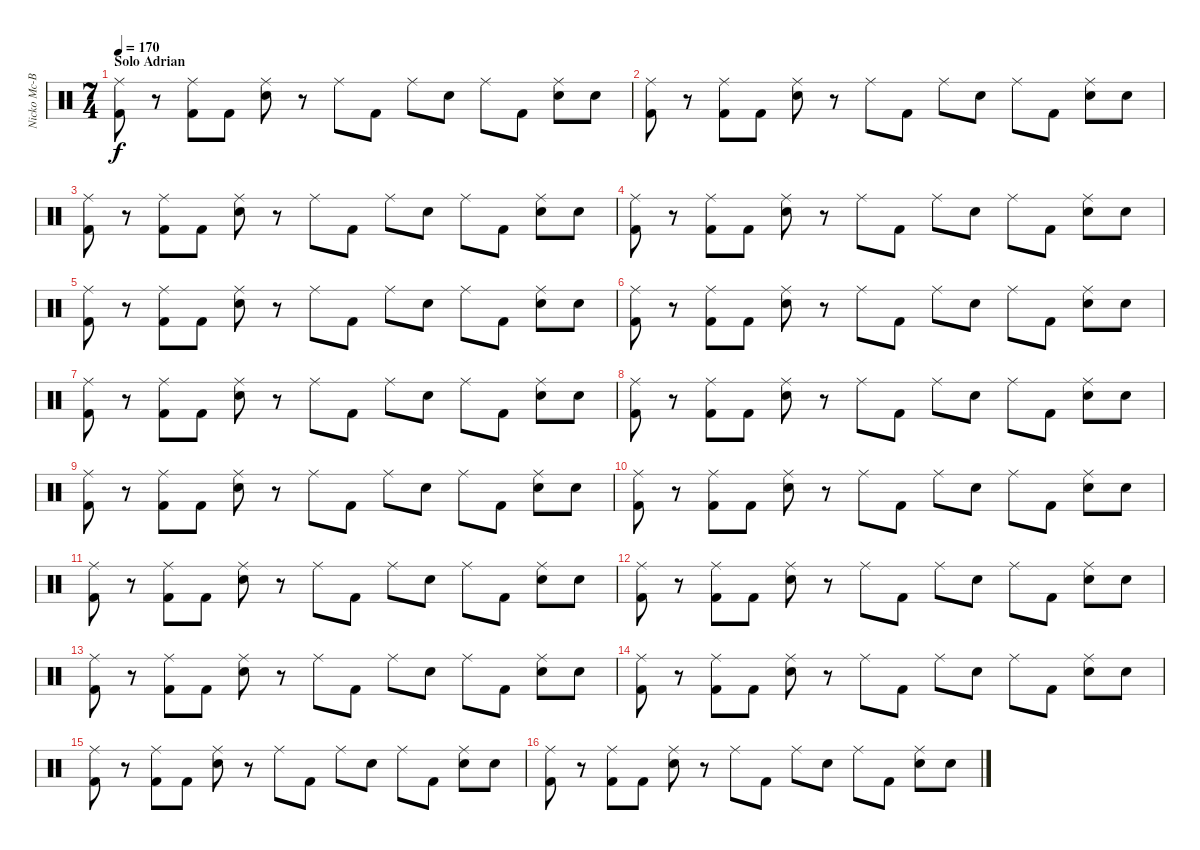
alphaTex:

\track ("Nicko Mc-Brain" "Nicko Mc-B") {instrument percussion}
\staff {score}
\articulation defaults
\ts (7 4)
\section ("" "Solo Adrian")
\tempo 170
\clef neutral
\ks c
("Ride (middle)" "Kick (hit) 2").8{dy f} r.8 ("Ride (middle)" "Kick (hit) 2").8 "Kick (hit) 2".8 ("Ride (middle)" "Snare (hit) 2").8 r.8 "Ride (middle)".8 "Kick (hit) 2".8 "Ride (middle)".8 "Snare (hit) 2".8 "Ride (middle)".8 "Kick (hit) 2".8 ("Ride (middle)" "Snare (hit) 2").8 "Snare (hit) 2".8 |
("Ride (middle)" "Kick (hit) 2").8 r.8 ("Ride (middle)" "Kick (hit) 2").8 "Kick (hit) 2".8 ("Ride (middle)" "Snare (hit) 2").8 r.8 "Ride (middle)".8 "Kick (hit) 2".8 "Ride (middle)".8 "Snare (hit) 2".8 "Ride (middle)".8 "Kick (hit) 2".8 ("Ride (middle)" "Snare (hit) 2").8 "Snare (hit) 2".8 |
("Ride (middle)" "Kick (hit) 2").8 r.8 ("Ride (middle)" "Kick (hit) 2").8 "Kick (hit) 2".8 ("Ride (middle)" "Snare (hit) 2").8 r.8 "Ride (middle)".8 "Kick (hit) 2".8 "Ride (middle)".8 "Snare (hit) 2".8 "Ride (middle)".8 "Kick (hit) 2".8 ("Ride (middle)" "Snare (hit) 2").8 "Snare (hit) 2".8 |
("Ride (middle)" "Kick (hit) 2").8 r.8 ("Ride (middle)" "Kick (hit) 2").8 "Kick (hit) 2".8 ("Ride (middle)" "Snare (hit) 2").8 r.8 "Ride (middle)".8 "Kick (hit) 2".8 "Ride (middle)".8 "Snare (hit) 2".8 "Ride (middle)".8 "Kick (hit) 2".8 ("Ride (middle)" "Snare (hit) 2").8 "Snare (hit) 2".8 |
("Ride (middle)" "Kick (hit) 2").8 r.8 ("Ride (middle)" "Kick (hit) 2").8 "Kick (hit) 2".8 ("Ride (middle)" "Snare (hit) 2").8 r.8 "Ride (middle)".8 "Kick (hit) 2".8 "Ride (middle)".8 "Snare (hit) 2".8 "Ride (middle)".8 "Kick (hit) 2".8 ("Ride (middle)" "Snare (hit) 2").8 "Snare (hit) 2".8 |
("Ride (middle)" "Kick (hit) 2").8 r.8 ("Ride (middle)" "Kick (hit) 2").8 "Kick (hit) 2".8 ("Ride (middle)" "Snare (hit) 2").8 r.8 "Ride (middle)".8 "Kick (hit) 2".8 "Ride (middle)".8 "Snare (hit) 2".8 "Ride (middle)".8 "Kick (hit) 2".8 ("Ride (middle)" "Snare (hit) 2").8 "Snare (hit) 2".8 |
("Ride (middle)" "Kick (hit) 2").8 r.8 ("Ride (middle)" "Kick (hit) 2").8 "Kick (hit) 2".8 ("Ride (middle)" "Snare (hit) 2").8 r.8 "Ride (middle)".8 "Kick (hit) 2".8 "Ride (middle)".8 "Snare (hit) 2".8 "Ride (middle)".8 "Kick (hit) 2".8 ("Ride (middle)" "Snare (hit) 2").8 "Snare (hit) 2".8 |
("Ride (middle)" "Kick (hit) 2").8 r.8 ("Ride (middle)" "Kick (hit) 2").8 "Kick (hit) 2".8 ("Ride (middle)" "Snare (hit) 2").8 r.8 "Ride (middle)".8 "Kick (hit) 2".8 "Ride (middle)".8 "Snare (hit) 2".8 "Ride (middle)".8 "Kick (hit) 2".8 ("Ride (middle)" "Snare (hit) 2").8 "Snare (hit) 2".8 |
("Ride (middle)" "Kick (hit) 2").8 r.8 ("Ride (middle)" "Kick (hit) 2").8 "Kick (hit) 2".8 ("Ride (middle)" "Snare (hit) 2").8 r.8 "Ride (middle)".8 "Kick (hit) 2".8 "Ride (middle)".8 "Snare (hit) 2".8 "Ride (middle)".8 "Kick (hit) 2".8 ("Ride (middle)" "Snare (hit) 2").8 "Snare (hit) 2".8 |
("Ride (middle)" "Kick (hit) 2").8 r.8 ("Ride (middle)" "Kick (hit) 2").8 "Kick (hit) 2".8 ("Ride (middle)" "Snare (hit) 2").8 r.8 "Ride (middle)".8 "Kick (hit) 2".8 "Ride (middle)".8 "Snare (hit) 2".8 "Ride (middle)".8 "Kick (hit) 2".8 ("Ride (middle)" "Snare (hit) 2").8 "Snare (hit) 2".8 |
("Ride (middle)" "Kick (hit) 2").8 r.8 ("Ride (middle)" "Kick (hit) 2").8 "Kick (hit) 2".8 ("Ride (middle)" "Snare (hit) 2").8 r.8 "Ride (middle)".8 "Kick (hit) 2".8 "Ride (middle)".8 "Snare (hit) 2".8 "Ride (middle)".8 "Kick (hit) 2".8 ("Ride (middle)" "Snare (hit) 2").8 "Snare (hit) 2".8 |
("Ride (middle)" "Kick (hit) 2").8 r.8 ("Ride (middle)" "Kick (hit) 2").8 "Kick (hit) 2".8 ("Ride (middle)" "Snare (hit) 2").8 r.8 "Ride (middle)".8 "Kick (hit) 2".8 "Ride (middle)".8 "Snare (hit) 2".8 "Ride (middle)".8 "Kick (hit) 2".8 ("Ride (middle)" "Snare (hit) 2").8 "Snare (hit) 2".8 |
("Ride (middle)" "Kick (hit) 2").8 r.8 ("Ride (middle)" "Kick (hit) 2").8 "Kick (hit) 2".8 ("Ride (middle)" "Snare (hit) 2").8 r.8 "Ride (middle)".8 "Kick (hit) 2".8 "Ride (middle)".8 "Snare (hit) 2".8 "Ride (middle)".8 "Kick (hit) 2".8 ("Ride (middle)" "Snare (hit) 2").8 "Snare (hit) 2".8 |
("Ride (middle)" "Kick (hit) 2").8 r.8 ("Ride (middle)" "Kick (hit) 2").8 "Kick (hit) 2".8 ("Ride (middle)" "Snare (hit) 2").8 r.8 "Ride (middle)".8 "Kick (hit) 2".8 "Ride (middle)".8 "Snare (hit) 2".8 "Ride (middle)".8 "Kick (hit) 2".8 ("Ride (middle)" "Snare (hit) 2").8 "Snare (hit) 2".8 |
("Ride (middle)" "Kick (hit) 2").8 r.8 ("Ride (middle)" "Kick (hit) 2").8 "Kick (hit) 2".8 ("Ride (middle)" "Snare (hit) 2").8 r.8 "Ride (middle)".8 "Kick (hit) 2".8 "Ride (middle)".8 "Snare (hit) 2".8 "Ride (middle)".8 "Kick (hit) 2".8 ("Ride (middle)" "Snare (hit) 2").8 "Snare (hit) 2".8 |
("Ride (middle)" "Kick (hit) 2").8 r.8 ("Ride (middle)" "Kick (hit) 2").8 "Kick (hit) 2".8 ("Ride (middle)" "Snare (hit) 2").8 r.8 "Ride (middle)".8 "Kick (hit) 2".8 "Ride (middle)".8 "Snare (hit) 2".8 "Ride (middle)".8 "Kick (hit) 2".8 ("Ride (middle)" "Snare (hit) 2").8 "Snare (hit) 2".8
